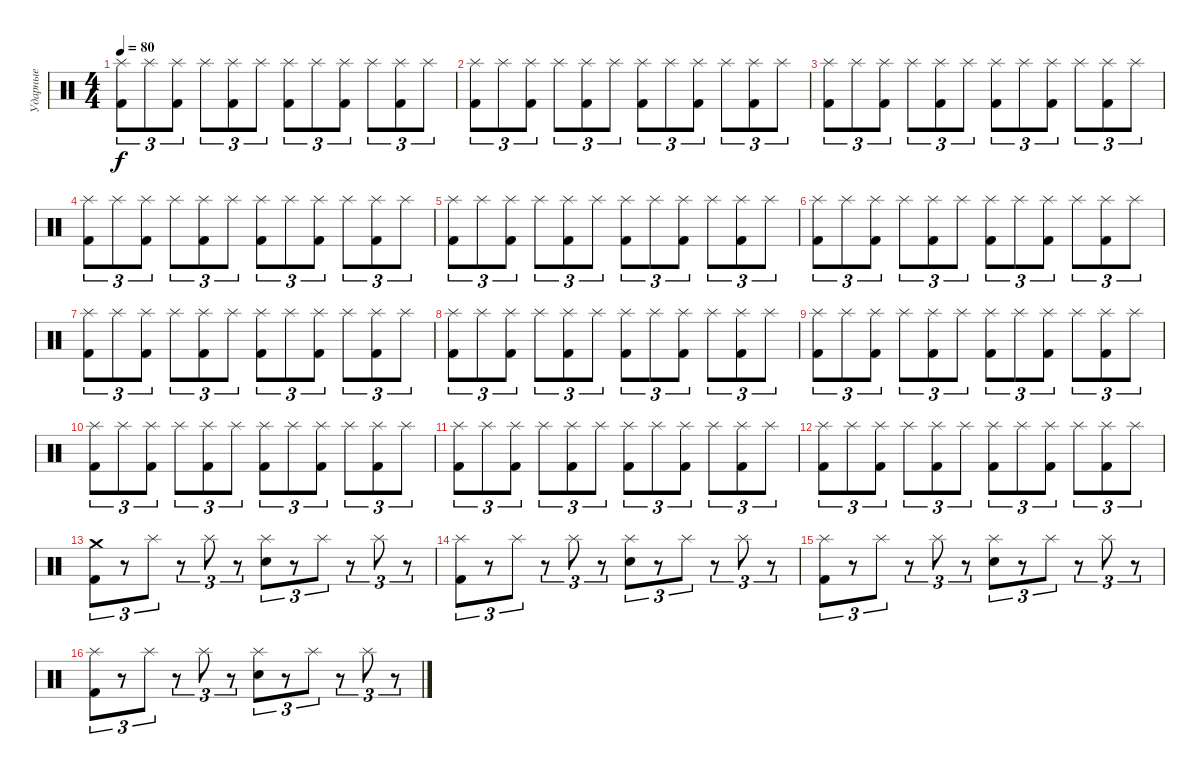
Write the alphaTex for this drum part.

\track ("Ударные" "Ударные") {instrument percussion}
\staff {score}
\articulation defaults
\ts (4 4)
\tempo 80
\clef neutral
\ks c
("Splash (hit)" "Kick (hit) 2").8{tu (3 2) dy f} "Splash (hit)".8{tu (3 2)} ("Splash (hit)" "Kick (hit) 2").8{tu (3 2)} "Splash (hit)".8{tu (3 2)} ("Splash (hit)" "Kick (hit) 2").8{tu (3 2)} "Splash (hit)".8{tu (3 2)} ("Splash (hit)" "Kick (hit) 2").8{tu (3 2)} "Splash (hit)".8{tu (3 2)} ("Splash (hit)" "Kick (hit) 2").8{tu (3 2)} "Splash (hit)".8{tu (3 2)} ("Splash (hit)" "Kick (hit) 2").8{tu (3 2)} "Splash (hit)".8{tu (3 2)} |
("Splash (hit)" "Kick (hit) 2").8{tu (3 2)} "Splash (hit)".8{tu (3 2)} ("Splash (hit)" "Kick (hit) 2").8{tu (3 2)} "Splash (hit)".8{tu (3 2)} ("Splash (hit)" "Kick (hit) 2").8{tu (3 2)} "Splash (hit)".8{tu (3 2)} ("Splash (hit)" "Kick (hit) 2").8{tu (3 2)} "Splash (hit)".8{tu (3 2)} ("Splash (hit)" "Kick (hit) 2").8{tu (3 2)} "Splash (hit)".8{tu (3 2)} ("Splash (hit)" "Kick (hit) 2").8{tu (3 2)} "Splash (hit)".8{tu (3 2)} |
("Splash (hit)" "Kick (hit) 2").8{tu (3 2)} "Splash (hit)".8{tu (3 2)} ("Splash (hit)" "Kick (hit) 2").8{tu (3 2)} "Splash (hit)".8{tu (3 2)} ("Splash (hit)" "Kick (hit) 2").8{tu (3 2)} "Splash (hit)".8{tu (3 2)} ("Splash (hit)" "Kick (hit) 2").8{tu (3 2)} "Splash (hit)".8{tu (3 2)} ("Splash (hit)" "Kick (hit) 2").8{tu (3 2)} "Splash (hit)".8{tu (3 2)} ("Splash (hit)" "Kick (hit) 2").8{tu (3 2)} "Splash (hit)".8{tu (3 2)} |
("Splash (hit)" "Kick (hit) 2").8{tu (3 2)} "Splash (hit)".8{tu (3 2)} ("Splash (hit)" "Kick (hit) 2").8{tu (3 2)} "Splash (hit)".8{tu (3 2)} ("Splash (hit)" "Kick (hit) 2").8{tu (3 2)} "Splash (hit)".8{tu (3 2)} ("Splash (hit)" "Kick (hit) 2").8{tu (3 2)} "Splash (hit)".8{tu (3 2)} ("Splash (hit)" "Kick (hit) 2").8{tu (3 2)} "Splash (hit)".8{tu (3 2)} ("Splash (hit)" "Kick (hit) 2").8{tu (3 2)} "Splash (hit)".8{tu (3 2)} |
("Splash (hit)" "Kick (hit) 2").8{tu (3 2)} "Splash (hit)".8{tu (3 2)} ("Splash (hit)" "Kick (hit) 2").8{tu (3 2)} "Splash (hit)".8{tu (3 2)} ("Splash (hit)" "Kick (hit) 2").8{tu (3 2)} "Splash (hit)".8{tu (3 2)} ("Splash (hit)" "Kick (hit) 2").8{tu (3 2)} "Splash (hit)".8{tu (3 2)} ("Splash (hit)" "Kick (hit) 2").8{tu (3 2)} "Splash (hit)".8{tu (3 2)} ("Splash (hit)" "Kick (hit) 2").8{tu (3 2)} "Splash (hit)".8{tu (3 2)} |
("Splash (hit)" "Kick (hit) 2").8{tu (3 2)} "Splash (hit)".8{tu (3 2)} ("Splash (hit)" "Kick (hit) 2").8{tu (3 2)} "Splash (hit)".8{tu (3 2)} ("Splash (hit)" "Kick (hit) 2").8{tu (3 2)} "Splash (hit)".8{tu (3 2)} ("Splash (hit)" "Kick (hit) 2").8{tu (3 2)} "Splash (hit)".8{tu (3 2)} ("Splash (hit)" "Kick (hit) 2").8{tu (3 2)} "Splash (hit)".8{tu (3 2)} ("Splash (hit)" "Kick (hit) 2").8{tu (3 2)} "Splash (hit)".8{tu (3 2)} |
("Splash (hit)" "Kick (hit) 2").8{tu (3 2)} "Splash (hit)".8{tu (3 2)} ("Splash (hit)" "Kick (hit) 2").8{tu (3 2)} "Splash (hit)".8{tu (3 2)} ("Splash (hit)" "Kick (hit) 2").8{tu (3 2)} "Splash (hit)".8{tu (3 2)} ("Splash (hit)" "Kick (hit) 2").8{tu (3 2)} "Splash (hit)".8{tu (3 2)} ("Splash (hit)" "Kick (hit) 2").8{tu (3 2)} "Splash (hit)".8{tu (3 2)} ("Splash (hit)" "Kick (hit) 2").8{tu (3 2)} "Splash (hit)".8{tu (3 2)} |
("Splash (hit)" "Kick (hit) 2").8{tu (3 2)} "Splash (hit)".8{tu (3 2)} ("Splash (hit)" "Kick (hit) 2").8{tu (3 2)} "Splash (hit)".8{tu (3 2)} ("Splash (hit)" "Kick (hit) 2").8{tu (3 2)} "Splash (hit)".8{tu (3 2)} ("Splash (hit)" "Kick (hit) 2").8{tu (3 2)} "Splash (hit)".8{tu (3 2)} ("Splash (hit)" "Kick (hit) 2").8{tu (3 2)} "Splash (hit)".8{tu (3 2)} ("Splash (hit)" "Kick (hit) 2").8{tu (3 2)} "Splash (hit)".8{tu (3 2)} |
("Splash (hit)" "Kick (hit) 2").8{tu (3 2)} "Splash (hit)".8{tu (3 2)} ("Splash (hit)" "Kick (hit) 2").8{tu (3 2)} "Splash (hit)".8{tu (3 2)} ("Splash (hit)" "Kick (hit) 2").8{tu (3 2)} "Splash (hit)".8{tu (3 2)} ("Splash (hit)" "Kick (hit) 2").8{tu (3 2)} "Splash (hit)".8{tu (3 2)} ("Splash (hit)" "Kick (hit) 2").8{tu (3 2)} "Splash (hit)".8{tu (3 2)} ("Splash (hit)" "Kick (hit) 2").8{tu (3 2)} "Splash (hit)".8{tu (3 2)} |
("Splash (hit)" "Kick (hit) 2").8{tu (3 2)} "Splash (hit)".8{tu (3 2)} ("Splash (hit)" "Kick (hit) 2").8{tu (3 2)} "Splash (hit)".8{tu (3 2)} ("Splash (hit)" "Kick (hit) 2").8{tu (3 2)} "Splash (hit)".8{tu (3 2)} ("Splash (hit)" "Kick (hit) 2").8{tu (3 2)} "Splash (hit)".8{tu (3 2)} ("Splash (hit)" "Kick (hit) 2").8{tu (3 2)} "Splash (hit)".8{tu (3 2)} ("Splash (hit)" "Kick (hit) 2").8{tu (3 2)} "Splash (hit)".8{tu (3 2)} |
("Splash (hit)" "Kick (hit) 2").8{tu (3 2)} "Splash (hit)".8{tu (3 2)} ("Splash (hit)" "Kick (hit) 2").8{tu (3 2)} "Splash (hit)".8{tu (3 2)} ("Splash (hit)" "Kick (hit) 2").8{tu (3 2)} "Splash (hit)".8{tu (3 2)} ("Splash (hit)" "Kick (hit) 2").8{tu (3 2)} "Splash (hit)".8{tu (3 2)} ("Splash (hit)" "Kick (hit) 2").8{tu (3 2)} "Splash (hit)".8{tu (3 2)} ("Splash (hit)" "Kick (hit) 2").8{tu (3 2)} "Splash (hit)".8{tu (3 2)} |
("Splash (hit)" "Kick (hit) 2").8{tu (3 2)} "Splash (hit)".8{tu (3 2)} ("Splash (hit)" "Kick (hit) 2").8{tu (3 2)} "Splash (hit)".8{tu (3 2)} ("Splash (hit)" "Kick (hit) 2").8{tu (3 2)} "Splash (hit)".8{tu (3 2)} ("Splash (hit)" "Kick (hit) 2").8{tu (3 2)} "Splash (hit)".8{tu (3 2)} ("Splash (hit)" "Kick (hit) 2").8{tu (3 2)} "Splash (hit)".8{tu (3 2)} ("Splash (hit)" "Kick (hit) 2").8{tu (3 2)} "Splash (hit)".8{tu (3 2)} |
("Crash medium (hit)" "Kick (hit) 2").8{tu (3 2)} r.8{tu (3 2)} "Splash (hit)".8{tu (3 2)} r.8{tu (3 2)} "Splash (hit)".8{tu (3 2)} r.8{tu (3 2)} ("Splash (hit)" "Electric Snare (hit)").8{tu (3 2)} r.8{tu (3 2)} "Splash (hit)".8{tu (3 2)} r.8{tu (3 2)} "Splash (hit)".8{tu (3 2)} r.8{tu (3 2)} |
("Splash (hit)" "Kick (hit) 2").8{tu (3 2)} r.8{tu (3 2)} "Splash (hit)".8{tu (3 2)} r.8{tu (3 2)} "Splash (hit)".8{tu (3 2)} r.8{tu (3 2)} ("Splash (hit)" "Electric Snare (hit)").8{tu (3 2)} r.8{tu (3 2)} "Splash (hit)".8{tu (3 2)} r.8{tu (3 2)} "Splash (hit)".8{tu (3 2)} r.8{tu (3 2)} |
("Splash (hit)" "Kick (hit) 2").8{tu (3 2)} r.8{tu (3 2)} "Splash (hit)".8{tu (3 2)} r.8{tu (3 2)} "Splash (hit)".8{tu (3 2)} r.8{tu (3 2)} ("Splash (hit)" "Electric Snare (hit)").8{tu (3 2)} r.8{tu (3 2)} "Splash (hit)".8{tu (3 2)} r.8{tu (3 2)} "Splash (hit)".8{tu (3 2)} r.8{tu (3 2)} |
("Splash (hit)" "Kick (hit) 2").8{tu (3 2)} r.8{tu (3 2)} "Splash (hit)".8{tu (3 2)} r.8{tu (3 2)} "Splash (hit)".8{tu (3 2)} r.8{tu (3 2)} ("Splash (hit)" "Electric Snare (hit)").8{tu (3 2)} r.8{tu (3 2)} "Splash (hit)".8{tu (3 2)} r.8{tu (3 2)} "Splash (hit)".8{tu (3 2)} r.8{tu (3 2)}
